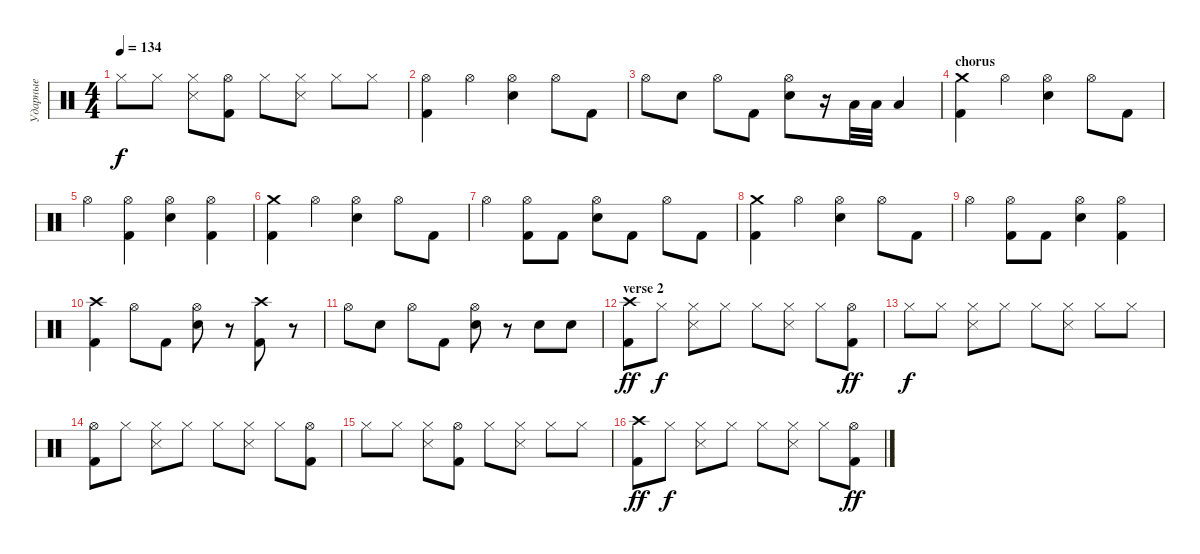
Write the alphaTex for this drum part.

\track ("Ударные" "Ударные") {instrument percussion}
\staff {score}
\articulation defaults
\ts (4 4)
\tempo 134
\clef neutral
\ks c "Hi-Hat (closed)".8{dy f} "Hi-Hat (closed)".8
("Hi-Hat (closed)" "Snare (side stick) 3").8 ("Hi-Hat (open)" "Kick (hit) 2").8 "Hi-Hat (closed)".8 ("Hi-Hat (closed)" "Snare (side stick) 3").8 "Hi-Hat (closed)".8 "Hi-Hat (closed)".8 |
("Hi-Hat (open)" "Kick (hit) 2").4 "Hi-Hat (open)".4 ("Hi-Hat (open)" "Electric Snare (hit)").4 "Hi-Hat (open)".8 "Kick (hit) 2".8 |
"Hi-Hat (open)".8 "Electric Snare (hit)".8 "Hi-Hat (open)".8 "Kick (hit) 2".8 ("Hi-Hat (open)" "Electric Snare (hit)").8 r.16 "Low Tom (hit)".32 "Low Tom (hit)".32 "Low Floor Tom (hit)".4 |
\section ("" "chorus")
("Crash medium (hit)" "Kick (hit) 2").4 "Hi-Hat (open)".4 ("Hi-Hat (open)" "Electric Snare (hit)").4 "Hi-Hat (open)".8 "Kick (hit) 2".8 |
"Hi-Hat (open)".4 ("Hi-Hat (open)" "Kick (hit) 2").4 ("Hi-Hat (open)" "Electric Snare (hit)").4 ("Hi-Hat (open)" "Kick (hit) 2").4 |
("Crash medium (hit)" "Kick (hit) 2").4 "Hi-Hat (open)".4 ("Hi-Hat (open)" "Electric Snare (hit)").4 "Hi-Hat (open)".8 "Kick (hit) 2".8 |
"Hi-Hat (open)".4 ("Hi-Hat (open)" "Kick (hit) 2").8 "Kick (hit) 2".8 ("Hi-Hat (open)" "Electric Snare (hit)").8 "Kick (hit) 2".8 "Hi-Hat (open)".8 "Kick (hit) 2".8 |
("Crash medium (hit)" "Kick (hit) 2").4 "Hi-Hat (open)".4 ("Hi-Hat (open)" "Electric Snare (hit)").4 "Hi-Hat (open)".8 "Kick (hit) 2".8 |
"Hi-Hat (open)".4 ("Hi-Hat (open)" "Kick (hit) 2").8 "Kick (hit) 2".8 ("Hi-Hat (open)" "Electric Snare (hit)").4 ("Hi-Hat (open)" "Kick (hit) 2").4 |
("Crash high (hit)" "Kick (hit) 2").4 "Hi-Hat (open)".8 "Kick (hit) 2".8 ("Hi-Hat (open)" "Electric Snare (hit)").8 r.8 ("Crash high (hit)" "Kick (hit) 2").8 r.8 |
"Hi-Hat (open)".8 "Electric Snare (hit)".8 "Hi-Hat (open)".8 "Kick (hit) 2".8 ("Hi-Hat (open)" "Electric Snare (hit)").8 r.8 "Electric Snare (hit)".8 "Electric Snare (hit)".8 |
\section ("" "verse 2")
("Crash high (hit)" "Kick (hit) 2").8{dy ff} "Hi-Hat (closed)".8{dy f} ("Hi-Hat (closed)" "Snare (side stick) 3").8 "Hi-Hat (closed)".8 "Hi-Hat (closed)".8 ("Hi-Hat (closed)" "Snare (side stick) 3").8 "Hi-Hat (closed)".8 ("Hi-Hat (open)" "Kick (hit) 2").8{dy ff} |
"Hi-Hat (closed)".8{dy f} "Hi-Hat (closed)".8 ("Hi-Hat (closed)" "Snare (side stick) 3").8 "Hi-Hat (closed)".8 "Hi-Hat (closed)".8 ("Hi-Hat (closed)" "Snare (side stick) 3").8 "Hi-Hat (closed)".8 "Hi-Hat (closed)".8 |
("Hi-Hat (open)" "Kick (hit) 2").8 "Hi-Hat (closed)".8 ("Hi-Hat (closed)" "Snare (side stick) 3").8 "Hi-Hat (closed)".8 "Hi-Hat (closed)".8 ("Hi-Hat (closed)" "Snare (side stick) 3").8 "Hi-Hat (closed)".8 ("Hi-Hat (open)" "Kick (hit) 2").8 |
"Hi-Hat (closed)".8 "Hi-Hat (closed)".8 ("Hi-Hat (closed)" "Snare (side stick) 3").8 ("Hi-Hat (open)" "Kick (hit) 2").8 "Hi-Hat (closed)".8 ("Hi-Hat (closed)" "Snare (side stick) 3").8 "Hi-Hat (closed)".8 "Hi-Hat (closed)".8 |
("Crash high (hit)" "Kick (hit) 2").8{dy ff} "Hi-Hat (closed)".8{dy f} ("Hi-Hat (closed)" "Snare (side stick) 3").8 "Hi-Hat (closed)".8 "Hi-Hat (closed)".8 ("Hi-Hat (closed)" "Snare (side stick) 3").8 "Hi-Hat (closed)".8 ("Hi-Hat (open)" "Kick (hit) 2").8{dy ff}
